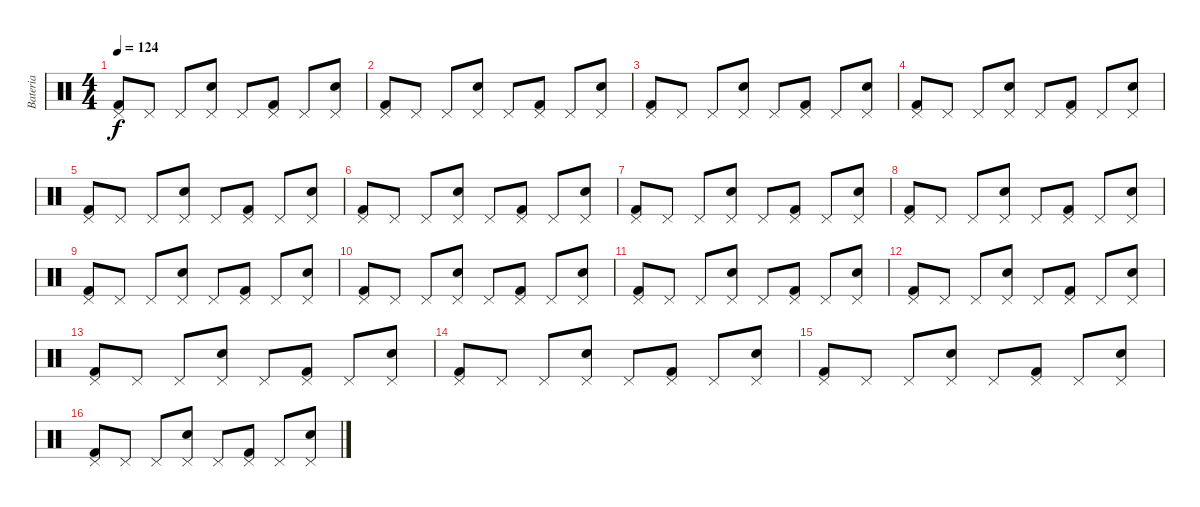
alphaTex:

\track ("Bateria" "Bateria") {instrument percussion}
\staff {score}
\articulation defaults
\ts (4 4)
\tempo 124
\clef neutral
\ks c
("Pedal Hi-Hat (hit)" "Kick (hit) 2").8{dy f} "Pedal Hi-Hat (hit)".8 "Pedal Hi-Hat (hit)".8 ("Pedal Hi-Hat (hit)" "Electric Snare (hit)").8 "Pedal Hi-Hat (hit)".8 ("Pedal Hi-Hat (hit)" "Kick (hit) 2").8 "Pedal Hi-Hat (hit)".8 ("Pedal Hi-Hat (hit)" "Electric Snare (hit)").8 |
("Pedal Hi-Hat (hit)" "Kick (hit) 2").8 "Pedal Hi-Hat (hit)".8 "Pedal Hi-Hat (hit)".8 ("Pedal Hi-Hat (hit)" "Electric Snare (hit)").8 "Pedal Hi-Hat (hit)".8 ("Pedal Hi-Hat (hit)" "Kick (hit) 2").8 "Pedal Hi-Hat (hit)".8 ("Pedal Hi-Hat (hit)" "Electric Snare (hit)").8 |
("Pedal Hi-Hat (hit)" "Kick (hit) 2").8 "Pedal Hi-Hat (hit)".8 "Pedal Hi-Hat (hit)".8 ("Pedal Hi-Hat (hit)" "Electric Snare (hit)").8 "Pedal Hi-Hat (hit)".8 ("Pedal Hi-Hat (hit)" "Kick (hit) 2").8 "Pedal Hi-Hat (hit)".8 ("Pedal Hi-Hat (hit)" "Electric Snare (hit)").8 |
("Pedal Hi-Hat (hit)" "Kick (hit) 2").8 "Pedal Hi-Hat (hit)".8 "Pedal Hi-Hat (hit)".8 ("Pedal Hi-Hat (hit)" "Electric Snare (hit)").8 "Pedal Hi-Hat (hit)".8 ("Pedal Hi-Hat (hit)" "Kick (hit) 2").8 "Pedal Hi-Hat (hit)".8 ("Pedal Hi-Hat (hit)" "Electric Snare (hit)").8 |
("Pedal Hi-Hat (hit)" "Kick (hit) 2").8 "Pedal Hi-Hat (hit)".8 "Pedal Hi-Hat (hit)".8 ("Pedal Hi-Hat (hit)" "Electric Snare (hit)").8 "Pedal Hi-Hat (hit)".8 ("Pedal Hi-Hat (hit)" "Kick (hit) 2").8 "Pedal Hi-Hat (hit)".8 ("Pedal Hi-Hat (hit)" "Electric Snare (hit)").8 |
("Pedal Hi-Hat (hit)" "Kick (hit) 2").8 "Pedal Hi-Hat (hit)".8 "Pedal Hi-Hat (hit)".8 ("Pedal Hi-Hat (hit)" "Electric Snare (hit)").8 "Pedal Hi-Hat (hit)".8 ("Pedal Hi-Hat (hit)" "Kick (hit) 2").8 "Pedal Hi-Hat (hit)".8 ("Pedal Hi-Hat (hit)" "Electric Snare (hit)").8 |
("Pedal Hi-Hat (hit)" "Kick (hit) 2").8 "Pedal Hi-Hat (hit)".8 "Pedal Hi-Hat (hit)".8 ("Pedal Hi-Hat (hit)" "Electric Snare (hit)").8 "Pedal Hi-Hat (hit)".8 ("Pedal Hi-Hat (hit)" "Kick (hit) 2").8 "Pedal Hi-Hat (hit)".8 ("Pedal Hi-Hat (hit)" "Electric Snare (hit)").8 |
("Pedal Hi-Hat (hit)" "Kick (hit) 2").8 "Pedal Hi-Hat (hit)".8 "Pedal Hi-Hat (hit)".8 ("Pedal Hi-Hat (hit)" "Electric Snare (hit)").8 "Pedal Hi-Hat (hit)".8 ("Pedal Hi-Hat (hit)" "Kick (hit) 2").8 "Pedal Hi-Hat (hit)".8 ("Pedal Hi-Hat (hit)" "Electric Snare (hit)").8 |
("Pedal Hi-Hat (hit)" "Kick (hit) 2").8 "Pedal Hi-Hat (hit)".8 "Pedal Hi-Hat (hit)".8 ("Pedal Hi-Hat (hit)" "Electric Snare (hit)").8 "Pedal Hi-Hat (hit)".8 ("Pedal Hi-Hat (hit)" "Kick (hit) 2").8 "Pedal Hi-Hat (hit)".8 ("Pedal Hi-Hat (hit)" "Electric Snare (hit)").8 |
("Pedal Hi-Hat (hit)" "Kick (hit) 2").8 "Pedal Hi-Hat (hit)".8 "Pedal Hi-Hat (hit)".8 ("Pedal Hi-Hat (hit)" "Electric Snare (hit)").8 "Pedal Hi-Hat (hit)".8 ("Pedal Hi-Hat (hit)" "Kick (hit) 2").8 "Pedal Hi-Hat (hit)".8 ("Pedal Hi-Hat (hit)" "Electric Snare (hit)").8 |
("Pedal Hi-Hat (hit)" "Kick (hit) 2").8 "Pedal Hi-Hat (hit)".8 "Pedal Hi-Hat (hit)".8 ("Pedal Hi-Hat (hit)" "Electric Snare (hit)").8 "Pedal Hi-Hat (hit)".8 ("Pedal Hi-Hat (hit)" "Kick (hit) 2").8 "Pedal Hi-Hat (hit)".8 ("Pedal Hi-Hat (hit)" "Electric Snare (hit)").8 |
("Pedal Hi-Hat (hit)" "Kick (hit) 2").8 "Pedal Hi-Hat (hit)".8 "Pedal Hi-Hat (hit)".8 ("Pedal Hi-Hat (hit)" "Electric Snare (hit)").8 "Pedal Hi-Hat (hit)".8 ("Pedal Hi-Hat (hit)" "Kick (hit) 2").8 "Pedal Hi-Hat (hit)".8 ("Pedal Hi-Hat (hit)" "Electric Snare (hit)").8 |
("Pedal Hi-Hat (hit)" "Kick (hit) 2").8 "Pedal Hi-Hat (hit)".8 "Pedal Hi-Hat (hit)".8 ("Pedal Hi-Hat (hit)" "Electric Snare (hit)").8 "Pedal Hi-Hat (hit)".8 ("Pedal Hi-Hat (hit)" "Kick (hit) 2").8 "Pedal Hi-Hat (hit)".8 ("Pedal Hi-Hat (hit)" "Electric Snare (hit)").8 |
("Pedal Hi-Hat (hit)" "Kick (hit) 2").8 "Pedal Hi-Hat (hit)".8 "Pedal Hi-Hat (hit)".8 ("Pedal Hi-Hat (hit)" "Electric Snare (hit)").8 "Pedal Hi-Hat (hit)".8 ("Pedal Hi-Hat (hit)" "Kick (hit) 2").8 "Pedal Hi-Hat (hit)".8 ("Pedal Hi-Hat (hit)" "Electric Snare (hit)").8 |
("Pedal Hi-Hat (hit)" "Kick (hit) 2").8 "Pedal Hi-Hat (hit)".8 "Pedal Hi-Hat (hit)".8 ("Pedal Hi-Hat (hit)" "Electric Snare (hit)").8 "Pedal Hi-Hat (hit)".8 ("Pedal Hi-Hat (hit)" "Kick (hit) 2").8 "Pedal Hi-Hat (hit)".8 ("Pedal Hi-Hat (hit)" "Electric Snare (hit)").8 |
("Pedal Hi-Hat (hit)" "Kick (hit) 2").8 "Pedal Hi-Hat (hit)".8 "Pedal Hi-Hat (hit)".8 ("Pedal Hi-Hat (hit)" "Electric Snare (hit)").8 "Pedal Hi-Hat (hit)".8 ("Pedal Hi-Hat (hit)" "Kick (hit) 2").8 "Pedal Hi-Hat (hit)".8 ("Pedal Hi-Hat (hit)" "Electric Snare (hit)").8
